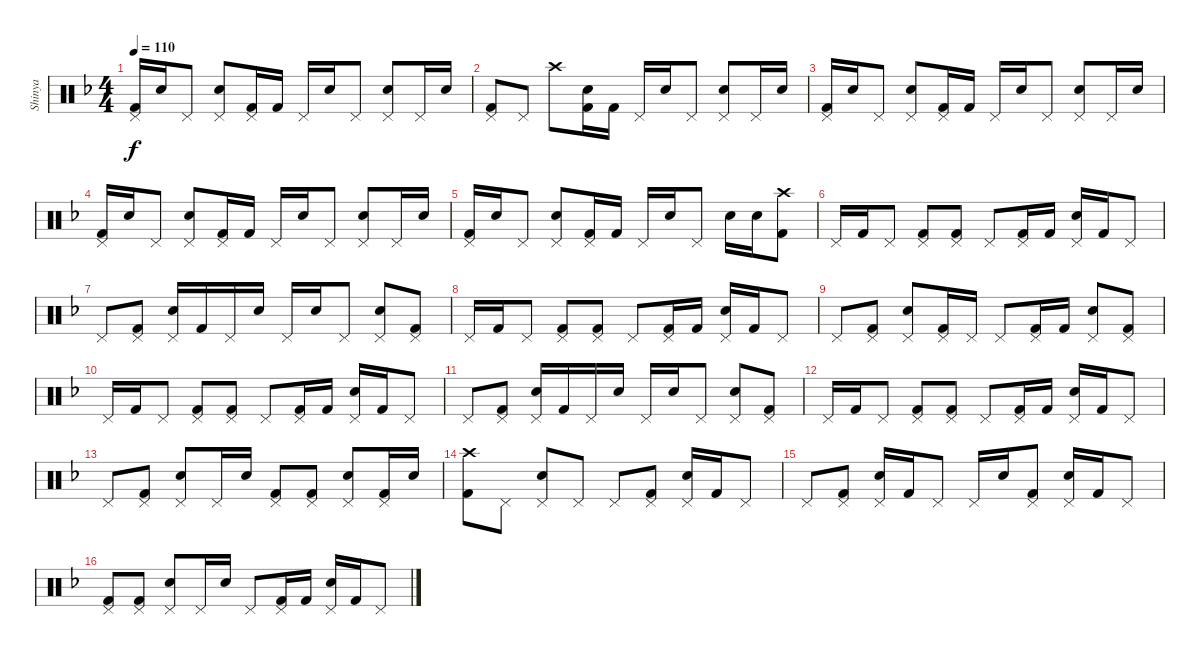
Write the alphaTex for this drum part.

\track ("Shinya" "Shinya") {instrument percussion}
\staff {score}
\articulation defaults
\ts (4 4)
\tempo 110
\clef neutral
\ks f
("Pedal Hi-Hat (hit)" "Kick (hit) 2").16{dy f} "Electric Snare (hit)".16 "Pedal Hi-Hat (hit)".8 ("Pedal Hi-Hat (hit)" "Electric Snare (hit)").8 ("Pedal Hi-Hat (hit)" "Kick (hit) 2").16 "Kick (hit) 2".16 "Pedal Hi-Hat (hit)".16 "Electric Snare (hit)".16 "Pedal Hi-Hat (hit)".8 ("Pedal Hi-Hat (hit)" "Electric Snare (hit)").8 "Pedal Hi-Hat (hit)".16 "Electric Snare (hit)".16 |
("Pedal Hi-Hat (hit)" "Kick (hit) 2").8 "Pedal Hi-Hat (hit)".8 "Crash high (hit)".8 ("Electric Snare (hit)" "Kick (hit) 2").16 "Kick (hit) 2".16 "Pedal Hi-Hat (hit)".16 "Electric Snare (hit)".16 "Pedal Hi-Hat (hit)".8 ("Pedal Hi-Hat (hit)" "Electric Snare (hit)").8 "Pedal Hi-Hat (hit)".16 "Electric Snare (hit)".16 |
("Pedal Hi-Hat (hit)" "Kick (hit) 2").16 "Electric Snare (hit)".16 "Pedal Hi-Hat (hit)".8 ("Pedal Hi-Hat (hit)" "Electric Snare (hit)").8 ("Pedal Hi-Hat (hit)" "Kick (hit) 2").16 "Kick (hit) 2".16 "Pedal Hi-Hat (hit)".16 "Electric Snare (hit)".16 "Pedal Hi-Hat (hit)".8 ("Pedal Hi-Hat (hit)" "Electric Snare (hit)").8 "Pedal Hi-Hat (hit)".16 "Electric Snare (hit)".16 |
("Pedal Hi-Hat (hit)" "Kick (hit) 2").16 "Electric Snare (hit)".16 "Pedal Hi-Hat (hit)".8 ("Pedal Hi-Hat (hit)" "Electric Snare (hit)").8 ("Pedal Hi-Hat (hit)" "Kick (hit) 2").16 "Kick (hit) 2".16 "Pedal Hi-Hat (hit)".16 "Electric Snare (hit)".16 "Pedal Hi-Hat (hit)".8 ("Pedal Hi-Hat (hit)" "Electric Snare (hit)").8 "Pedal Hi-Hat (hit)".16 "Electric Snare (hit)".16 |
("Pedal Hi-Hat (hit)" "Kick (hit) 2").16 "Electric Snare (hit)".16 "Pedal Hi-Hat (hit)".8 ("Pedal Hi-Hat (hit)" "Electric Snare (hit)").8 ("Pedal Hi-Hat (hit)" "Kick (hit) 2").16 "Kick (hit) 2".16 "Pedal Hi-Hat (hit)".16 "Electric Snare (hit)".16 "Pedal Hi-Hat (hit)".8 "Electric Snare (hit)".16 "Electric Snare (hit)".16 ("Crash high (hit)" "Kick (hit) 2").8 |
"Pedal Hi-Hat (hit)".16 "Kick (hit) 2".16 "Pedal Hi-Hat (hit)".8 ("Pedal Hi-Hat (hit)" "Kick (hit) 2").8 ("Pedal Hi-Hat (hit)" "Kick (hit) 2").8 "Pedal Hi-Hat (hit)".8 ("Pedal Hi-Hat (hit)" "Kick (hit) 2").16 "Kick (hit) 2".16 ("Pedal Hi-Hat (hit)" "Electric Snare (hit)").16 "Kick (hit) 2".16 "Pedal Hi-Hat (hit)".8 |
"Pedal Hi-Hat (hit)".8 ("Pedal Hi-Hat (hit)" "Kick (hit) 2").8 ("Pedal Hi-Hat (hit)" "Electric Snare (hit)").16 "Kick (hit) 2".16 "Pedal Hi-Hat (hit)".16 "Electric Snare (hit)".16 "Pedal Hi-Hat (hit)".16 "Electric Snare (hit)".16 "Pedal Hi-Hat (hit)".8 ("Pedal Hi-Hat (hit)" "Electric Snare (hit)").8 ("Pedal Hi-Hat (hit)" "Kick (hit) 2").8 |
"Pedal Hi-Hat (hit)".16 "Kick (hit) 2".16 "Pedal Hi-Hat (hit)".8 ("Pedal Hi-Hat (hit)" "Kick (hit) 2").8 ("Pedal Hi-Hat (hit)" "Kick (hit) 2").8 "Pedal Hi-Hat (hit)".8 ("Pedal Hi-Hat (hit)" "Kick (hit) 2").16 "Kick (hit) 2".16 ("Pedal Hi-Hat (hit)" "Electric Snare (hit)").16 "Kick (hit) 2".16 "Pedal Hi-Hat (hit)".8 |
"Pedal Hi-Hat (hit)".8 ("Pedal Hi-Hat (hit)" "Kick (hit) 2").8 ("Pedal Hi-Hat (hit)" "Electric Snare (hit)").8 ("Pedal Hi-Hat (hit)" "Kick (hit) 2").16 "Pedal Hi-Hat (hit)".16 "Pedal Hi-Hat (hit)".8 ("Pedal Hi-Hat (hit)" "Kick (hit) 2").16 "Kick (hit) 2".16 ("Pedal Hi-Hat (hit)" "Electric Snare (hit)").8 ("Pedal Hi-Hat (hit)" "Kick (hit) 2").8 |
"Pedal Hi-Hat (hit)".16 "Kick (hit) 2".16 "Pedal Hi-Hat (hit)".8 ("Pedal Hi-Hat (hit)" "Kick (hit) 2").8 ("Pedal Hi-Hat (hit)" "Kick (hit) 2").8 "Pedal Hi-Hat (hit)".8 ("Pedal Hi-Hat (hit)" "Kick (hit) 2").16 "Kick (hit) 2".16 ("Pedal Hi-Hat (hit)" "Electric Snare (hit)").16 "Kick (hit) 2".16 "Pedal Hi-Hat (hit)".8 |
"Pedal Hi-Hat (hit)".8 ("Pedal Hi-Hat (hit)" "Kick (hit) 2").8 ("Pedal Hi-Hat (hit)" "Electric Snare (hit)").16 "Kick (hit) 2".16 "Pedal Hi-Hat (hit)".16 "Electric Snare (hit)".16 "Pedal Hi-Hat (hit)".16 "Electric Snare (hit)".16 "Pedal Hi-Hat (hit)".8 ("Pedal Hi-Hat (hit)" "Electric Snare (hit)").8 ("Pedal Hi-Hat (hit)" "Kick (hit) 2").8 |
"Pedal Hi-Hat (hit)".16 "Kick (hit) 2".16 "Pedal Hi-Hat (hit)".8 ("Pedal Hi-Hat (hit)" "Kick (hit) 2").8 ("Pedal Hi-Hat (hit)" "Kick (hit) 2").8 "Pedal Hi-Hat (hit)".8 ("Pedal Hi-Hat (hit)" "Kick (hit) 2").16 "Kick (hit) 2".16 ("Pedal Hi-Hat (hit)" "Electric Snare (hit)").16 "Kick (hit) 2".16 "Pedal Hi-Hat (hit)".8 |
"Pedal Hi-Hat (hit)".8 ("Pedal Hi-Hat (hit)" "Kick (hit) 2").8 ("Pedal Hi-Hat (hit)" "Electric Snare (hit)").8 "Pedal Hi-Hat (hit)".16 "Electric Snare (hit)".16 ("Pedal Hi-Hat (hit)" "Kick (hit) 2").8 ("Pedal Hi-Hat (hit)" "Kick (hit) 2").8 ("Pedal Hi-Hat (hit)" "Electric Snare (hit)").8 ("Pedal Hi-Hat (hit)" "Kick (hit) 2").16 "Electric Snare (hit)".16 |
("Crash high (hit)" "Kick (hit) 2").8 "Pedal Hi-Hat (hit)".8 ("Pedal Hi-Hat (hit)" "Electric Snare (hit)").8 "Pedal Hi-Hat (hit)".8 "Pedal Hi-Hat (hit)".8 ("Pedal Hi-Hat (hit)" "Kick (hit) 2").8 ("Pedal Hi-Hat (hit)" "Electric Snare (hit)").16 "Kick (hit) 2".16 "Pedal Hi-Hat (hit)".8 |
"Pedal Hi-Hat (hit)".8 ("Pedal Hi-Hat (hit)" "Kick (hit) 2").8 ("Pedal Hi-Hat (hit)" "Electric Snare (hit)").16 "Kick (hit) 2".16 "Pedal Hi-Hat (hit)".8 "Pedal Hi-Hat (hit)".16 "Electric Snare (hit)".16 ("Pedal Hi-Hat (hit)" "Kick (hit) 2").8 ("Pedal Hi-Hat (hit)" "Electric Snare (hit)").16 "Kick (hit) 2".16 "Pedal Hi-Hat (hit)".8 |
("Pedal Hi-Hat (hit)" "Kick (hit) 2").8 ("Pedal Hi-Hat (hit)" "Kick (hit) 2").8 ("Pedal Hi-Hat (hit)" "Electric Snare (hit)").8 "Pedal Hi-Hat (hit)".16 "Electric Snare (hit)".16 "Pedal Hi-Hat (hit)".8 ("Pedal Hi-Hat (hit)" "Kick (hit) 2").16 "Kick (hit) 2".16 ("Pedal Hi-Hat (hit)" "Electric Snare (hit)").16 "Kick (hit) 2".16 "Pedal Hi-Hat (hit)".8
